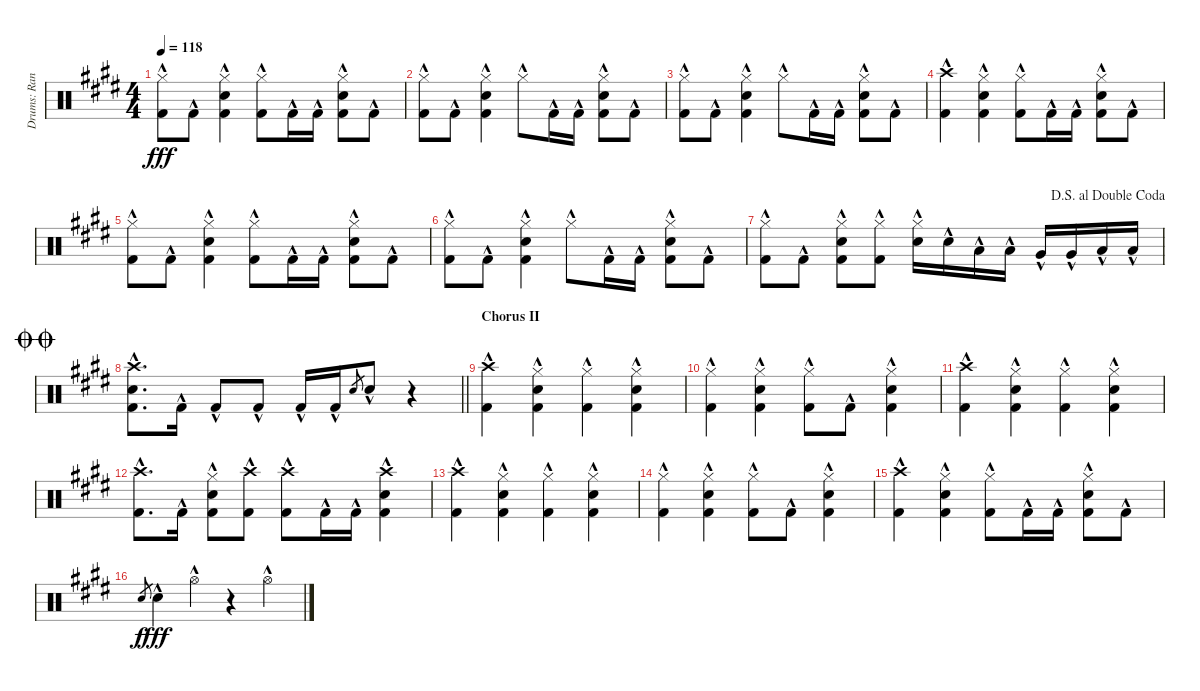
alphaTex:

\track ("Drums: Randy" "Drums: Ran") {instrument percussion}
\staff {score}
\articulation defaults
\ts (4 4)
\tempo 118
\clef neutral
\ks e
("Hi-Hat (closed)"{hac} "Kick (hit) 2"{hac}).8{dy fff} "Kick (hit) 2"{hac}.8 ("Hi-Hat (closed)"{hac} "Snare (hit) 2"{hac} "Kick (hit) 2"{hac}).4 ("Hi-Hat (closed)"{hac} "Kick (hit) 2"{hac}).8 "Kick (hit) 2"{hac}.16 "Kick (hit) 2"{hac}.16 ("Hi-Hat (closed)"{hac} "Snare (hit) 2"{hac} "Kick (hit) 2"{hac}).8 "Kick (hit) 2"{hac}.8 |
("Hi-Hat (closed)"{hac} "Kick (hit) 2"{hac}).8 "Kick (hit) 2"{hac}.8 ("Hi-Hat (closed)"{hac} "Snare (hit) 2"{hac} "Kick (hit) 2"{hac}).4 "Hi-Hat (closed)"{hac}.8 "Kick (hit) 2"{hac}.16 "Kick (hit) 2"{hac}.16 ("Hi-Hat (closed)"{hac} "Snare (hit) 2"{hac} "Kick (hit) 2"{hac}).8 "Kick (hit) 2"{hac}.8 |
("Hi-Hat (closed)"{hac} "Kick (hit) 2"{hac}).8 "Kick (hit) 2"{hac}.8 ("Hi-Hat (closed)"{hac} "Snare (hit) 2"{hac} "Kick (hit) 2"{hac}).4 "Hi-Hat (closed)"{hac}.8 "Kick (hit) 2"{hac}.16 "Kick (hit) 2"{hac}.16 ("Hi-Hat (closed)"{hac} "Snare (hit) 2"{hac} "Kick (hit) 2"{hac}).8 "Kick (hit) 2"{hac}.8 |
("Crash high (hit)"{hac} "Kick (hit) 2"{hac}).4 ("Hi-Hat (closed)"{hac} "Snare (hit) 2"{hac} "Kick (hit) 2"{hac}).4 ("Hi-Hat (closed)"{hac} "Kick (hit) 2"{hac}).8 "Kick (hit) 2"{hac}.16 "Kick (hit) 2"{hac}.16 ("Hi-Hat (closed)"{hac} "Snare (hit) 2"{hac} "Kick (hit) 2"{hac}).8 "Kick (hit) 2"{hac}.8 |
("Hi-Hat (closed)"{hac} "Kick (hit) 2"{hac}).8 "Kick (hit) 2"{hac}.8 ("Hi-Hat (closed)"{hac} "Snare (hit) 2"{hac} "Kick (hit) 2"{hac}).4 ("Hi-Hat (closed)"{hac} "Kick (hit) 2"{hac}).8 "Kick (hit) 2"{hac}.16 "Kick (hit) 2"{hac}.16 ("Hi-Hat (closed)"{hac} "Snare (hit) 2"{hac} "Kick (hit) 2"{hac}).8 "Kick (hit) 2"{hac}.8 |
("Hi-Hat (closed)"{hac} "Kick (hit) 2"{hac}).8 "Kick (hit) 2"{hac}.8 ("Hi-Hat (closed)"{hac} "Snare (hit) 2"{hac} "Kick (hit) 2"{hac}).4 "Hi-Hat (closed)"{hac}.8 "Kick (hit) 2"{hac}.16 "Kick (hit) 2"{hac}.16 ("Hi-Hat (closed)"{hac} "Snare (hit) 2"{hac} "Kick (hit) 2"{hac}).8 "Kick (hit) 2"{hac}.8 |
\jump dalsegnoaldoublecoda
("Hi-Hat (closed)"{hac} "Kick (hit) 2"{hac}).8 "Kick (hit) 2"{hac}.8 ("Hi-Hat (closed)"{hac} "Snare (hit) 2"{hac} "Kick (hit) 2"{hac}).8 ("Hi-Hat (closed)"{hac} "Kick (hit) 2"{hac}).8 ("Hi-Hat (closed)"{hac} "Snare (hit) 2"{hac}).16 "Snare (hit) 2"{hac}.16 "Low Tom (hit)"{hac}.16 "Low Tom (hit)"{hac}.16 "Very Low Tom (hit)"{hac}.16 "Very Low Tom (hit)"{hac}.16 "Low Tom (hit)"{hac}.16 "Low Tom (hit)"{hac}.16 |
\jump doublecoda
\barLineRight lightlight
("Crash high (hit)"{hac} "Snare (hit) 2"{hac} "Kick (hit) 2"{hac}).8{d} "Kick (hit) 2"{hac}.16 "Kick (hit) 2"{hac}.8 "Kick (hit) 2"{hac}.8 "Kick (hit) 2"{hac}.16 "Kick (hit) 2"{hac}.16 "Snare (hit) 2".8{gr} "Snare (hit) 2"{hac}.8 r.4 |
\section ("" "Chorus II")
("Crash high (hit)"{hac} "Kick (hit) 2"{hac}).4 ("Hi-Hat (closed)"{hac} "Snare (hit) 2"{hac} "Kick (hit) 2"{hac}).4 ("Hi-Hat (closed)"{hac} "Kick (hit) 2"{hac}).4 ("Hi-Hat (closed)"{hac} "Snare (hit) 2"{hac} "Kick (hit) 2"{hac}).4 |
("Hi-Hat (closed)"{hac} "Kick (hit) 2"{hac}).4 ("Hi-Hat (closed)"{hac} "Snare (hit) 2"{hac} "Kick (hit) 2"{hac}).4 ("Hi-Hat (closed)"{hac} "Kick (hit) 2"{hac}).8 "Kick (hit) 2"{hac}.8 ("Hi-Hat (closed)"{hac} "Snare (hit) 2"{hac} "Kick (hit) 2"{hac}).4 |
("Crash high (hit)"{hac} "Kick (hit) 2"{hac}).4 ("Hi-Hat (closed)"{hac} "Snare (hit) 2"{hac} "Kick (hit) 2"{hac}).4 ("Hi-Hat (closed)"{hac} "Kick (hit) 2"{hac}).4 ("Hi-Hat (closed)"{hac} "Snare (hit) 2"{hac} "Kick (hit) 2"{hac}).4 |
("Crash high (hit)"{hac} "Kick (hit) 2"{hac}).8{d} "Kick (hit) 2"{hac}.16 ("Hi-Hat (closed)"{hac} "Snare (hit) 2"{hac} "Kick (hit) 2"{hac}).8 ("Crash high (hit)"{hac} "Kick (hit) 2"{hac}).8 ("Crash high (hit)"{hac} "Kick (hit) 2"{hac}).8 "Kick (hit) 2"{hac}.16 "Kick (hit) 2"{hac}.16 ("Crash high (hit)"{hac} "Snare (hit) 2"{hac} "Kick (hit) 2"{hac}).4 |
("Crash high (hit)"{hac} "Kick (hit) 2"{hac}).4 ("Hi-Hat (closed)"{hac} "Snare (hit) 2"{hac} "Kick (hit) 2"{hac}).4 ("Hi-Hat (closed)"{hac} "Kick (hit) 2"{hac}).4 ("Hi-Hat (closed)"{hac} "Snare (hit) 2"{hac} "Kick (hit) 2"{hac}).4 |
("Hi-Hat (closed)"{hac} "Kick (hit) 2"{hac}).4 ("Hi-Hat (closed)"{hac} "Snare (hit) 2"{hac} "Kick (hit) 2"{hac}).4 ("Hi-Hat (closed)"{hac} "Kick (hit) 2"{hac}).8 "Kick (hit) 2"{hac}.8 ("Hi-Hat (closed)"{hac} "Snare (hit) 2"{hac} "Kick (hit) 2"{hac}).4 |
("Crash high (hit)"{hac} "Kick (hit) 2"{hac}).4 ("Hi-Hat (closed)"{hac} "Snare (hit) 2"{hac} "Kick (hit) 2"{hac}).4 ("Hi-Hat (closed)"{hac} "Kick (hit) 2"{hac}).8 "Kick (hit) 2"{hac}.16 "Kick (hit) 2"{hac}.16 ("Hi-Hat (closed)"{hac} "Snare (hit) 2"{hac} "Kick (hit) 2"{hac}).8 "Kick (hit) 2"{hac}.8 |
"Snare (hit) 2".8{gr dy f} "Snare (hit) 2"{hac}.4{dy fff} "Hi-Hat (open)"{hac}.4 r.4 "Hi-Hat (open)"{hac}.4
